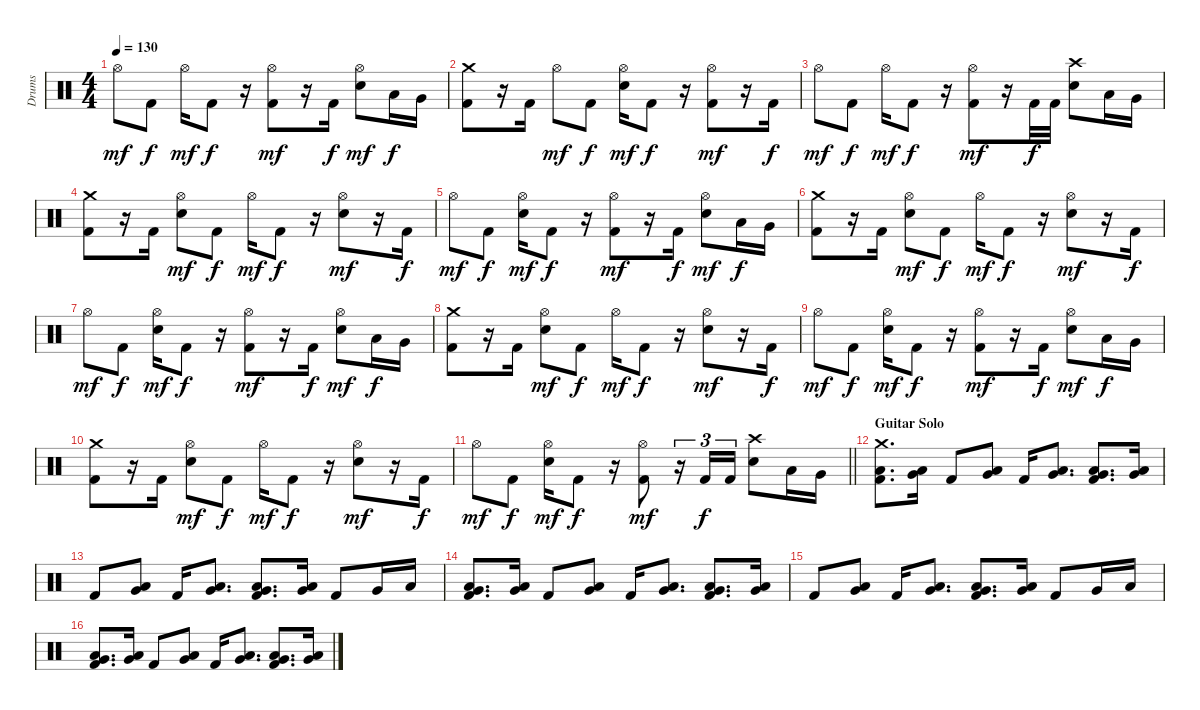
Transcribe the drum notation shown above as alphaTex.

\track ("Drums" "Drums") {instrument percussion}
\staff {score}
\articulation defaults
\ts (4 4)
\tempo 130
\clef neutral
\ks c "Hi-Hat (open)".8{dy mf} "Kick (hit) 2".8{dy f} "Hi-Hat (open)".16{dy mf} "Kick (hit) 2".8{dy f}
r.16 ("Kick (hit) 2" "Hi-Hat (open)").8{dy mf} r.16 "Kick (hit) 2".16{dy f} ("Hi-Hat (open)" "Electric Snare (hit)").8{dy mf} "Low Tom (hit)".16{dy f} "Very Low Tom (hit)".16 |
("Kick (hit) 2" "Crash medium (hit)").8 r.16 "Kick (hit) 2".16 "Hi-Hat (open)".8{dy mf} "Kick (hit) 2".8{dy f} ("Hi-Hat (open)" "Electric Snare (hit)").16{dy mf} "Kick (hit) 2".8{dy f} r.16 ("Kick (hit) 2" "Hi-Hat (open)").8{dy mf} r.16 "Kick (hit) 2".16{dy f} |
"Hi-Hat (open)".8{dy mf} "Kick (hit) 2".8{dy f} "Hi-Hat (open)".16{dy mf} "Kick (hit) 2".8{dy f} r.16 ("Kick (hit) 2" "Hi-Hat (open)").8{dy mf} r.16 "Kick (hit) 2".32{dy f} "Kick (hit) 2".32 ("Crash high (hit)" "Electric Snare (hit)").8 "Low Tom (hit)".16 "Very Low Tom (hit)".16 |
("Kick (hit) 2" "Crash medium (hit)").8 r.16 "Kick (hit) 2".16 ("Hi-Hat (open)" "Electric Snare (hit)").8{dy mf} "Kick (hit) 2".8{dy f} "Hi-Hat (open)".16{dy mf} "Kick (hit) 2".8{dy f} r.16 ("Hi-Hat (open)" "Electric Snare (hit)").8{dy mf} r.16 "Kick (hit) 2".16{dy f} |
"Hi-Hat (open)".8{dy mf} "Kick (hit) 2".8{dy f} ("Hi-Hat (open)" "Electric Snare (hit)").16{dy mf} "Kick (hit) 2".8{dy f} r.16 ("Kick (hit) 2" "Hi-Hat (open)").8{dy mf} r.16 "Kick (hit) 2".16{dy f} ("Hi-Hat (open)" "Electric Snare (hit)").8{dy mf} "Low Tom (hit)".16{dy f} "Very Low Tom (hit)".16 |
("Kick (hit) 2" "Crash medium (hit)").8 r.16 "Kick (hit) 2".16 ("Hi-Hat (open)" "Electric Snare (hit)").8{dy mf} "Kick (hit) 2".8{dy f} "Hi-Hat (open)".16{dy mf} "Kick (hit) 2".8{dy f} r.16 ("Hi-Hat (open)" "Electric Snare (hit)").8{dy mf} r.16 "Kick (hit) 2".16{dy f} |
"Hi-Hat (open)".8{dy mf} "Kick (hit) 2".8{dy f} ("Hi-Hat (open)" "Electric Snare (hit)").16{dy mf} "Kick (hit) 2".8{dy f} r.16 ("Kick (hit) 2" "Hi-Hat (open)").8{dy mf} r.16 "Kick (hit) 2".16{dy f} ("Hi-Hat (open)" "Electric Snare (hit)").8{dy mf} "Low Tom (hit)".16{dy f} "Very Low Tom (hit)".16 |
("Kick (hit) 2" "Crash medium (hit)").8 r.16 "Kick (hit) 2".16 ("Hi-Hat (open)" "Electric Snare (hit)").8{dy mf} "Kick (hit) 2".8{dy f} "Hi-Hat (open)".16{dy mf} "Kick (hit) 2".8{dy f} r.16 ("Hi-Hat (open)" "Electric Snare (hit)").8{dy mf} r.16 "Kick (hit) 2".16{dy f} |
"Hi-Hat (open)".8{dy mf} "Kick (hit) 2".8{dy f} ("Hi-Hat (open)" "Electric Snare (hit)").16{dy mf} "Kick (hit) 2".8{dy f} r.16 ("Kick (hit) 2" "Hi-Hat (open)").8{dy mf} r.16 "Kick (hit) 2".16{dy f} ("Hi-Hat (open)" "Electric Snare (hit)").8{dy mf} "Low Tom (hit)".16{dy f} "Very Low Tom (hit)".16 |
("Kick (hit) 2" "Crash medium (hit)").8 r.16 "Kick (hit) 2".16 ("Hi-Hat (open)" "Electric Snare (hit)").8{dy mf} "Kick (hit) 2".8{dy f} "Hi-Hat (open)".16{dy mf} "Kick (hit) 2".8{dy f} r.16 ("Hi-Hat (open)" "Electric Snare (hit)").8{dy mf} r.16 "Kick (hit) 2".16{dy f} |
\barLineRight lightlight "Hi-Hat (open)".8{dy mf} "Kick (hit) 2".8{dy f}
("Hi-Hat (open)" "Electric Snare (hit)").16{dy mf} "Kick (hit) 2".8{dy f} r.16 ("Kick (hit) 2" "Hi-Hat (open)").8{dy mf} r.16{tu (3 2)} "Kick (hit) 2".16{tu (3 2) dy f} "Kick (hit) 2".16{tu (3 2)} ("Crash high (hit)" "Electric Snare (hit)").8 "Low Tom (hit)".16 "Very Low Tom (hit)".16 |
\section ("" "Guitar Solo")
("Kick (hit) 2" "Crash medium (hit)" "Low Tom (hit)").8{d} ("Low Floor Tom (hit)" "Very Low Tom (hit)").16 "Kick (hit) 2".8 ("Low Floor Tom (hit)" "Very Low Tom (hit)").8 "Kick (hit) 2".16 ("Low Floor Tom (hit)" "Very Low Tom (hit)").8{d} ("Kick (hit) 2" "Low Floor Tom (hit)" "Very Low Tom (hit)").8{d} ("Low Floor Tom (hit)" "Very Low Tom (hit)").16 |
"Kick (hit) 2".8 ("Low Floor Tom (hit)" "Very Low Tom (hit)").8 "Kick (hit) 2".16 ("Low Floor Tom (hit)" "Very Low Tom (hit)").8{d} ("Kick (hit) 2" "Low Floor Tom (hit)" "Very Low Tom (hit)").8{d} ("Low Floor Tom (hit)" "Very Low Tom (hit)").16 "Kick (hit) 2".8 "Very Low Tom (hit)".16 "Low Floor Tom (hit)".16 |
("Kick (hit) 2" "Very Low Tom (hit)" "Low Tom (hit)").8{d} ("Low Floor Tom (hit)" "Very Low Tom (hit)").16 "Kick (hit) 2".8 ("Low Floor Tom (hit)" "Very Low Tom (hit)").8 "Kick (hit) 2".16 ("Low Floor Tom (hit)" "Very Low Tom (hit)").8{d} ("Kick (hit) 2" "Low Floor Tom (hit)" "Very Low Tom (hit)").8{d} ("Low Floor Tom (hit)" "Very Low Tom (hit)").16 |
"Kick (hit) 2".8 ("Low Floor Tom (hit)" "Very Low Tom (hit)").8 "Kick (hit) 2".16 ("Low Floor Tom (hit)" "Very Low Tom (hit)").8{d} ("Kick (hit) 2" "Low Floor Tom (hit)" "Very Low Tom (hit)").8{d} ("Low Floor Tom (hit)" "Very Low Tom (hit)").16 "Kick (hit) 2".8 "Very Low Tom (hit)".16 "Low Floor Tom (hit)".16 |
("Kick (hit) 2" "Very Low Tom (hit)" "Low Tom (hit)").8{d} ("Low Floor Tom (hit)" "Very Low Tom (hit)").16 "Kick (hit) 2".8 ("Low Floor Tom (hit)" "Very Low Tom (hit)").8 "Kick (hit) 2".16 ("Low Floor Tom (hit)" "Very Low Tom (hit)").8{d} ("Kick (hit) 2" "Low Floor Tom (hit)" "Very Low Tom (hit)").8{d} ("Low Floor Tom (hit)" "Very Low Tom (hit)").16
